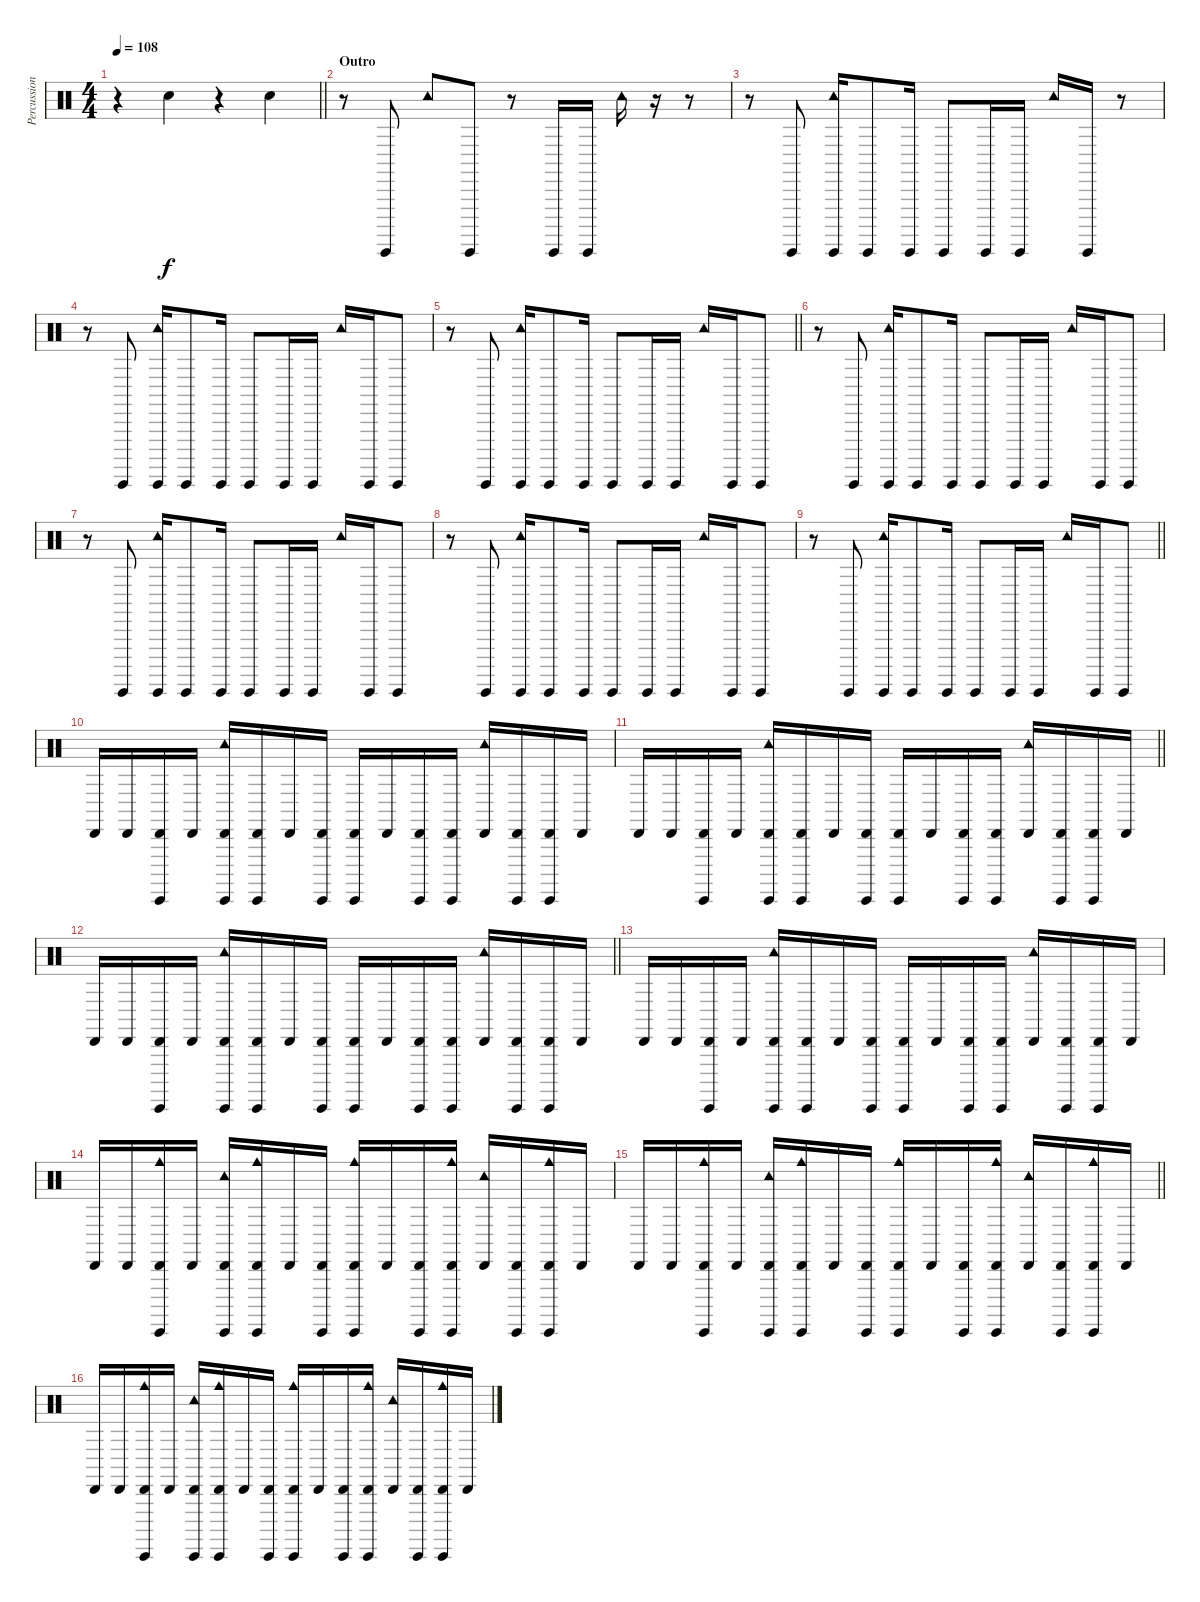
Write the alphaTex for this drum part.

\track ("Percussion (Chad Smith)" "Percussion") {instrument percussion}
\staff {score}
\articulation defaults
\ts (4 4)
\tempo 108
\clef neutral
\barLineRight lightlight
\ks c
r.4{dy f} "Hand Clap (hit)".4 r.4 "Hand Clap (hit)".4 |
\section ("" "Outro")
r.8 "Guiro (hit)".8 "Tambourine (hit)".8 "Guiro (hit)".8 r.8 "Guiro (hit)".16 "Guiro (hit)".16 "Tambourine (hit)".16 r.16 r.8 |
r.8 "Guiro (hit)".8 ("Guiro (hit)" "Tambourine (hit)").16 "Guiro (hit)".8 "Guiro (hit)".16 "Guiro (hit)".8 "Guiro (hit)".16 "Guiro (hit)".16 "Tambourine (hit)".16 "Guiro (hit)".16 r.8 |
r.8 "Guiro (hit)".8 ("Guiro (hit)" "Tambourine (hit)").16 "Guiro (hit)".8 "Guiro (hit)".16 "Guiro (hit)".8 "Guiro (hit)".16 "Guiro (hit)".16 "Tambourine (hit)".16 "Guiro (hit)".16 "Guiro (hit)".8 |
\barLineRight lightlight
r.8 "Guiro (hit)".8 ("Guiro (hit)" "Tambourine (hit)").16 "Guiro (hit)".8 "Guiro (hit)".16 "Guiro (hit)".8 "Guiro (hit)".16 "Guiro (hit)".16 "Tambourine (hit)".16 "Guiro (hit)".16 "Guiro (hit)".8 |
r.8 "Guiro (hit)".8 ("Guiro (hit)" "Tambourine (hit)").16 "Guiro (hit)".8 "Guiro (hit)".16 "Guiro (hit)".8 "Guiro (hit)".16 "Guiro (hit)".16 "Tambourine (hit)".16 "Guiro (hit)".16 "Guiro (hit)".8 |
r.8 "Guiro (hit)".8 ("Guiro (hit)" "Tambourine (hit)").16 "Guiro (hit)".8 "Guiro (hit)".16 "Guiro (hit)".8 "Guiro (hit)".16 "Guiro (hit)".16 "Tambourine (hit)".16 "Guiro (hit)".16 "Guiro (hit)".8 |
r.8 "Guiro (hit)".8 ("Guiro (hit)" "Tambourine (hit)").16 "Guiro (hit)".8 "Guiro (hit)".16 "Guiro (hit)".8 "Guiro (hit)".16 "Guiro (hit)".16 "Tambourine (hit)".16 "Guiro (hit)".16 "Guiro (hit)".8 |
\barLineRight lightlight
r.8 "Guiro (hit)".8 ("Guiro (hit)" "Tambourine (hit)").16 "Guiro (hit)".8 "Guiro (hit)".16 "Guiro (hit)".8 "Guiro (hit)".16 "Guiro (hit)".16 "Tambourine (hit)".16 "Guiro (hit)".16 "Guiro (hit)".8 |
"Cabasa (hit)".16 "Cabasa (hit)".16 ("Guiro (hit)" "Cabasa (hit)").16 "Cabasa (hit)".16 ("Guiro (hit)" "Tambourine (hit)" "Cabasa (hit)").16 ("Guiro (hit)" "Cabasa (hit)").16 "Cabasa (hit)".16 ("Guiro (hit)" "Cabasa (hit)").16 ("Guiro (hit)" "Cabasa (hit)").16 "Cabasa (hit)".16 ("Guiro (hit)" "Cabasa (hit)").16 ("Guiro (hit)" "Cabasa (hit)").16 ("Tambourine (hit)" "Cabasa (hit)").16 ("Guiro (hit)" "Cabasa (hit)").16 ("Guiro (hit)" "Cabasa (hit)").16 "Cabasa (hit)".16 |
\barLineRight lightlight "Cabasa (hit)".16 "Cabasa (hit)".16
("Guiro (hit)" "Cabasa (hit)").16 "Cabasa (hit)".16 ("Guiro (hit)" "Tambourine (hit)" "Cabasa (hit)").16 ("Guiro (hit)" "Cabasa (hit)").16 "Cabasa (hit)".16 ("Guiro (hit)" "Cabasa (hit)").16 ("Guiro (hit)" "Cabasa (hit)").16 "Cabasa (hit)".16 ("Guiro (hit)" "Cabasa (hit)").16 ("Guiro (hit)" "Cabasa (hit)").16 ("Tambourine (hit)" "Cabasa (hit)").16 ("Guiro (hit)" "Cabasa (hit)").16 ("Guiro (hit)" "Cabasa (hit)").16 "Cabasa (hit)".16 |
\barLineRight lightlight "Cabasa (hit)".16 "Cabasa (hit)".16
("Guiro (hit)" "Cabasa (hit)").16 "Cabasa (hit)".16 ("Guiro (hit)" "Tambourine (hit)" "Cabasa (hit)").16 ("Guiro (hit)" "Cabasa (hit)").16 "Cabasa (hit)".16 ("Guiro (hit)" "Cabasa (hit)").16 ("Guiro (hit)" "Cabasa (hit)").16 "Cabasa (hit)".16 ("Guiro (hit)" "Cabasa (hit)").16 ("Guiro (hit)" "Cabasa (hit)").16 ("Tambourine (hit)" "Cabasa (hit)").16 ("Guiro (hit)" "Cabasa (hit)").16 ("Guiro (hit)" "Cabasa (hit)").16 "Cabasa (hit)".16 |
"Cabasa (hit)".16 "Cabasa (hit)".16 ("Guiro (hit)" "Cabasa (hit)").16 "Cabasa (hit)".16 ("Guiro (hit)" "Tambourine (hit)" "Cabasa (hit)").16 ("Guiro (hit)" "Cabasa (hit)").16 "Cabasa (hit)".16 ("Guiro (hit)" "Cabasa (hit)").16 ("Guiro (hit)" "Cabasa (hit)").16 "Cabasa (hit)".16 ("Guiro (hit)" "Cabasa (hit)").16 ("Guiro (hit)" "Cabasa (hit)").16 ("Tambourine (hit)" "Cabasa (hit)").16 ("Guiro (hit)" "Cabasa (hit)").16 ("Guiro (hit)" "Cabasa (hit)").16 "Cabasa (hit)".16 |
"Cabasa (hit)".16 "Cabasa (hit)".16 ("Guiro (hit)" "Cabasa (hit)" "Cowbell medium (hit)").16 "Cabasa (hit)".16 ("Guiro (hit)" "Tambourine (hit)" "Cabasa (hit)").16 ("Guiro (hit)" "Cabasa (hit)" "Cowbell medium (hit)").16 "Cabasa (hit)".16 ("Guiro (hit)" "Cabasa (hit)").16 ("Guiro (hit)" "Cabasa (hit)" "Cowbell medium (hit)").16 "Cabasa (hit)".16 ("Guiro (hit)" "Cabasa (hit)").16 ("Guiro (hit)" "Cabasa (hit)" "Cowbell medium (hit)").16 ("Tambourine (hit)" "Cabasa (hit)").16 ("Guiro (hit)" "Cabasa (hit)").16 ("Guiro (hit)" "Cabasa (hit)" "Cowbell medium (hit)").16 "Cabasa (hit)".16 |
\barLineRight lightlight "Cabasa (hit)".16 "Cabasa (hit)".16
("Guiro (hit)" "Cabasa (hit)" "Cowbell medium (hit)").16 "Cabasa (hit)".16 ("Guiro (hit)" "Tambourine (hit)" "Cabasa (hit)").16 ("Guiro (hit)" "Cabasa (hit)" "Cowbell medium (hit)").16 "Cabasa (hit)".16 ("Guiro (hit)" "Cabasa (hit)").16 ("Guiro (hit)" "Cabasa (hit)" "Cowbell medium (hit)").16 "Cabasa (hit)".16 ("Guiro (hit)" "Cabasa (hit)").16 ("Guiro (hit)" "Cabasa (hit)" "Cowbell medium (hit)").16 ("Tambourine (hit)" "Cabasa (hit)").16 ("Guiro (hit)" "Cabasa (hit)").16 ("Guiro (hit)" "Cabasa (hit)" "Cowbell medium (hit)").16 "Cabasa (hit)".16 |
"Cabasa (hit)".16 "Cabasa (hit)".16 ("Guiro (hit)" "Cabasa (hit)" "Cowbell medium (hit)").16 "Cabasa (hit)".16 ("Guiro (hit)" "Tambourine (hit)" "Cabasa (hit)").16 ("Guiro (hit)" "Cabasa (hit)" "Cowbell medium (hit)").16 "Cabasa (hit)".16 ("Guiro (hit)" "Cabasa (hit)").16 ("Guiro (hit)" "Cabasa (hit)" "Cowbell medium (hit)").16 "Cabasa (hit)".16 ("Guiro (hit)" "Cabasa (hit)").16 ("Guiro (hit)" "Cabasa (hit)" "Cowbell medium (hit)").16 ("Tambourine (hit)" "Cabasa (hit)").16 ("Guiro (hit)" "Cabasa (hit)").16 ("Guiro (hit)" "Cabasa (hit)" "Cowbell medium (hit)").16 "Cabasa (hit)".16
